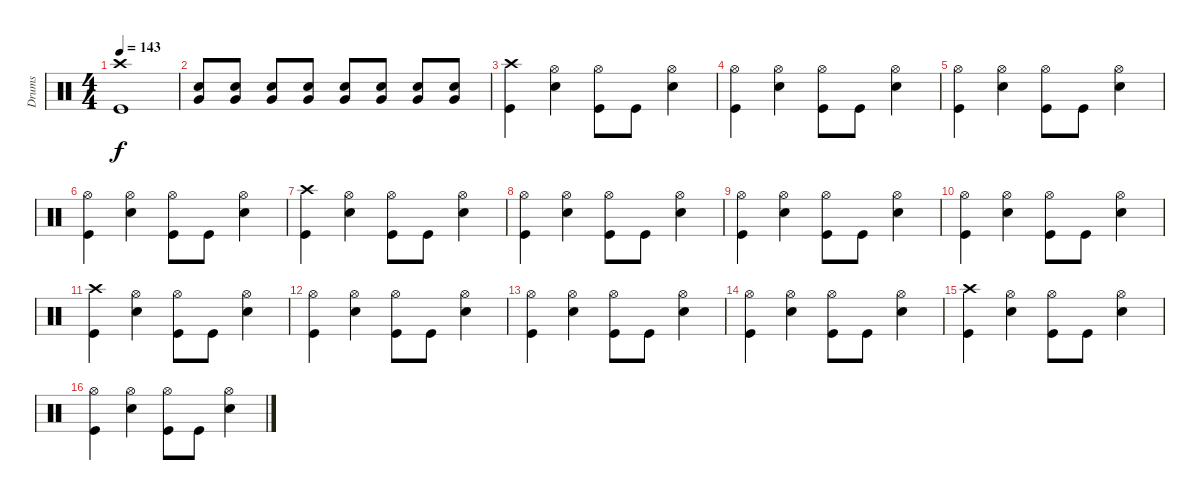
\track ("Drums" "Drums") {instrument percussion}
\staff {score}
\articulation defaults
\ts (4 4)
\tempo 143
\clef neutral
\ks c
("Crash high (hit)" "Kick (hit)").1{dy f} |
("Snare (hit) 2" "Very Low Tom (hit)").8 ("Snare (hit) 2" "Very Low Tom (hit)").8 ("Snare (hit) 2" "Very Low Tom (hit)").8 ("Snare (hit) 2" "Very Low Tom (hit)").8 ("Snare (hit) 2" "Very Low Tom (hit)").8 ("Snare (hit) 2" "Very Low Tom (hit)").8 ("Snare (hit) 2" "Very Low Tom (hit)").8 ("Snare (hit) 2" "Very Low Tom (hit)").8 |
("Crash high (hit)" "Kick (hit)").4 ("Hi-Hat (open)" "Snare (hit) 2").4 ("Hi-Hat (open)" "Kick (hit)").8 "Kick (hit)".8 ("Hi-Hat (open)" "Snare (hit) 2").4 |
("Hi-Hat (open)" "Kick (hit)").4 ("Hi-Hat (open)" "Snare (hit) 2").4 ("Hi-Hat (open)" "Kick (hit)").8 "Kick (hit)".8 ("Hi-Hat (open)" "Snare (hit) 2").4 |
("Hi-Hat (open)" "Kick (hit)").4 ("Hi-Hat (open)" "Snare (hit) 2").4 ("Hi-Hat (open)" "Kick (hit)").8 "Kick (hit)".8 ("Hi-Hat (open)" "Snare (hit) 2").4 |
("Hi-Hat (open)" "Kick (hit)").4 ("Hi-Hat (open)" "Snare (hit) 2").4 ("Hi-Hat (open)" "Kick (hit)").8 "Kick (hit)".8 ("Hi-Hat (open)" "Snare (hit) 2").4 |
("Crash high (hit)" "Kick (hit)").4 ("Hi-Hat (open)" "Snare (hit) 2").4 ("Hi-Hat (open)" "Kick (hit)").8 "Kick (hit)".8 ("Hi-Hat (open)" "Snare (hit) 2").4 |
("Hi-Hat (open)" "Kick (hit)").4 ("Hi-Hat (open)" "Snare (hit) 2").4 ("Hi-Hat (open)" "Kick (hit)").8 "Kick (hit)".8 ("Hi-Hat (open)" "Snare (hit) 2").4 |
("Hi-Hat (open)" "Kick (hit)").4 ("Hi-Hat (open)" "Snare (hit) 2").4 ("Hi-Hat (open)" "Kick (hit)").8 "Kick (hit)".8 ("Hi-Hat (open)" "Snare (hit) 2").4 |
("Hi-Hat (open)" "Kick (hit)").4 ("Hi-Hat (open)" "Snare (hit) 2").4 ("Hi-Hat (open)" "Kick (hit)").8 "Kick (hit)".8 ("Hi-Hat (open)" "Snare (hit) 2").4 |
("Crash high (hit)" "Kick (hit)").4 ("Hi-Hat (open)" "Snare (hit) 2").4 ("Hi-Hat (open)" "Kick (hit)").8 "Kick (hit)".8 ("Hi-Hat (open)" "Snare (hit) 2").4 |
("Hi-Hat (open)" "Kick (hit)").4 ("Hi-Hat (open)" "Snare (hit) 2").4 ("Hi-Hat (open)" "Kick (hit)").8 "Kick (hit)".8 ("Hi-Hat (open)" "Snare (hit) 2").4 |
("Hi-Hat (open)" "Kick (hit)").4 ("Hi-Hat (open)" "Snare (hit) 2").4 ("Hi-Hat (open)" "Kick (hit)").8 "Kick (hit)".8 ("Hi-Hat (open)" "Snare (hit) 2").4 |
("Hi-Hat (open)" "Kick (hit)").4 ("Hi-Hat (open)" "Snare (hit) 2").4 ("Hi-Hat (open)" "Kick (hit)").8 "Kick (hit)".8 ("Hi-Hat (open)" "Snare (hit) 2").4 |
("Crash high (hit)" "Kick (hit)").4 ("Hi-Hat (open)" "Snare (hit) 2").4 ("Hi-Hat (open)" "Kick (hit)").8 "Kick (hit)".8 ("Hi-Hat (open)" "Snare (hit) 2").4 |
("Hi-Hat (open)" "Kick (hit)").4 ("Hi-Hat (open)" "Snare (hit) 2").4 ("Hi-Hat (open)" "Kick (hit)").8 "Kick (hit)".8 ("Hi-Hat (open)" "Snare (hit) 2").4
